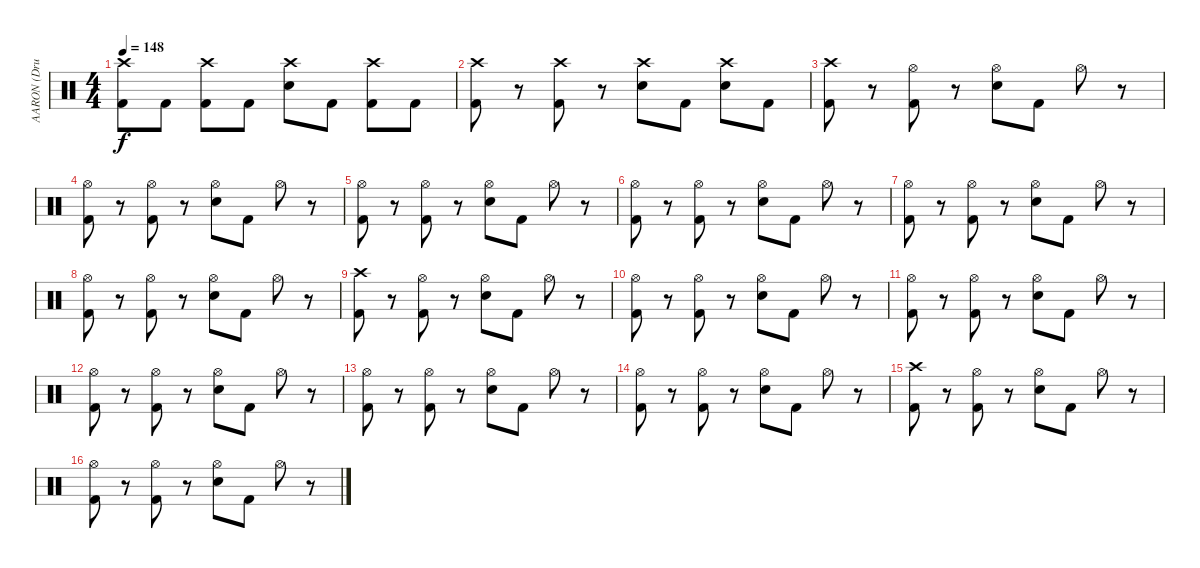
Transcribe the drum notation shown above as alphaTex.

\track ("AARON (Drums)" "AARON (Dru") {instrument percussion}
\staff {score}
\articulation defaults
\ts (4 4)
\tempo 148
\clef neutral
\ks c
("Crash high (hit)" "Kick (hit) 2").8{dy f} "Kick (hit) 2".8 ("Crash high (hit)" "Kick (hit) 2").8 "Kick (hit) 2".8 ("Crash high (hit)" "Electric Snare (hit)").8 "Kick (hit) 2".8 ("Crash high (hit)" "Kick (hit) 2").8 "Kick (hit) 2".8 |
("Crash high (hit)" "Kick (hit) 2").8 r.8 ("Crash high (hit)" "Kick (hit) 2").8 r.8 ("Crash high (hit)" "Electric Snare (hit)").8 "Kick (hit) 2".8 ("Crash high (hit)" "Electric Snare (hit)").8 "Kick (hit) 2".8 |
("Crash high (hit)" "Kick (hit) 2").8 r.8 ("Hi-Hat (open)" "Kick (hit) 2").8 r.8 ("Hi-Hat (open)" "Electric Snare (hit)").8 "Kick (hit) 2".8 "Hi-Hat (open)".8 r.8 |
("Hi-Hat (open)" "Kick (hit) 2").8 r.8 ("Hi-Hat (open)" "Kick (hit) 2").8 r.8 ("Hi-Hat (open)" "Electric Snare (hit)").8 "Kick (hit) 2".8 "Hi-Hat (open)".8 r.8 |
("Hi-Hat (open)" "Kick (hit) 2").8 r.8 ("Hi-Hat (open)" "Kick (hit) 2").8 r.8 ("Hi-Hat (open)" "Electric Snare (hit)").8 "Kick (hit) 2".8 "Hi-Hat (open)".8 r.8 |
("Hi-Hat (open)" "Kick (hit) 2").8 r.8 ("Hi-Hat (open)" "Kick (hit) 2").8 r.8 ("Hi-Hat (open)" "Electric Snare (hit)").8 "Kick (hit) 2".8 "Hi-Hat (open)".8 r.8 |
("Hi-Hat (open)" "Kick (hit) 2").8 r.8 ("Hi-Hat (open)" "Kick (hit) 2").8 r.8 ("Hi-Hat (open)" "Electric Snare (hit)").8 "Kick (hit) 2".8 "Hi-Hat (open)".8 r.8 |
("Hi-Hat (open)" "Kick (hit) 2").8 r.8 ("Hi-Hat (open)" "Kick (hit) 2").8 r.8 ("Hi-Hat (open)" "Electric Snare (hit)").8 "Kick (hit) 2".8 "Hi-Hat (open)".8 r.8 |
("Crash high (hit)" "Kick (hit) 2").8 r.8 ("Hi-Hat (open)" "Kick (hit) 2").8 r.8 ("Hi-Hat (open)" "Electric Snare (hit)").8 "Kick (hit) 2".8 "Hi-Hat (open)".8 r.8 |
("Hi-Hat (open)" "Kick (hit) 2").8 r.8 ("Hi-Hat (open)" "Kick (hit) 2").8 r.8 ("Hi-Hat (open)" "Electric Snare (hit)").8 "Kick (hit) 2".8 "Hi-Hat (open)".8 r.8 |
("Hi-Hat (open)" "Kick (hit) 2").8 r.8 ("Hi-Hat (open)" "Kick (hit) 2").8 r.8 ("Hi-Hat (open)" "Electric Snare (hit)").8 "Kick (hit) 2".8 "Hi-Hat (open)".8 r.8 |
("Hi-Hat (open)" "Kick (hit) 2").8 r.8 ("Hi-Hat (open)" "Kick (hit) 2").8 r.8 ("Hi-Hat (open)" "Electric Snare (hit)").8 "Kick (hit) 2".8 "Hi-Hat (open)".8 r.8 |
("Hi-Hat (open)" "Kick (hit) 2").8 r.8 ("Hi-Hat (open)" "Kick (hit) 2").8 r.8 ("Hi-Hat (open)" "Electric Snare (hit)").8 "Kick (hit) 2".8 "Hi-Hat (open)".8 r.8 |
("Hi-Hat (open)" "Kick (hit) 2").8 r.8 ("Hi-Hat (open)" "Kick (hit) 2").8 r.8 ("Hi-Hat (open)" "Electric Snare (hit)").8 "Kick (hit) 2".8 "Hi-Hat (open)".8 r.8 |
("Crash high (hit)" "Kick (hit) 2").8 r.8 ("Hi-Hat (open)" "Kick (hit) 2").8 r.8 ("Hi-Hat (open)" "Electric Snare (hit)").8 "Kick (hit) 2".8 "Hi-Hat (open)".8 r.8 |
("Hi-Hat (open)" "Kick (hit) 2").8 r.8 ("Hi-Hat (open)" "Kick (hit) 2").8 r.8 ("Hi-Hat (open)" "Electric Snare (hit)").8 "Kick (hit) 2".8 "Hi-Hat (open)".8 r.8
